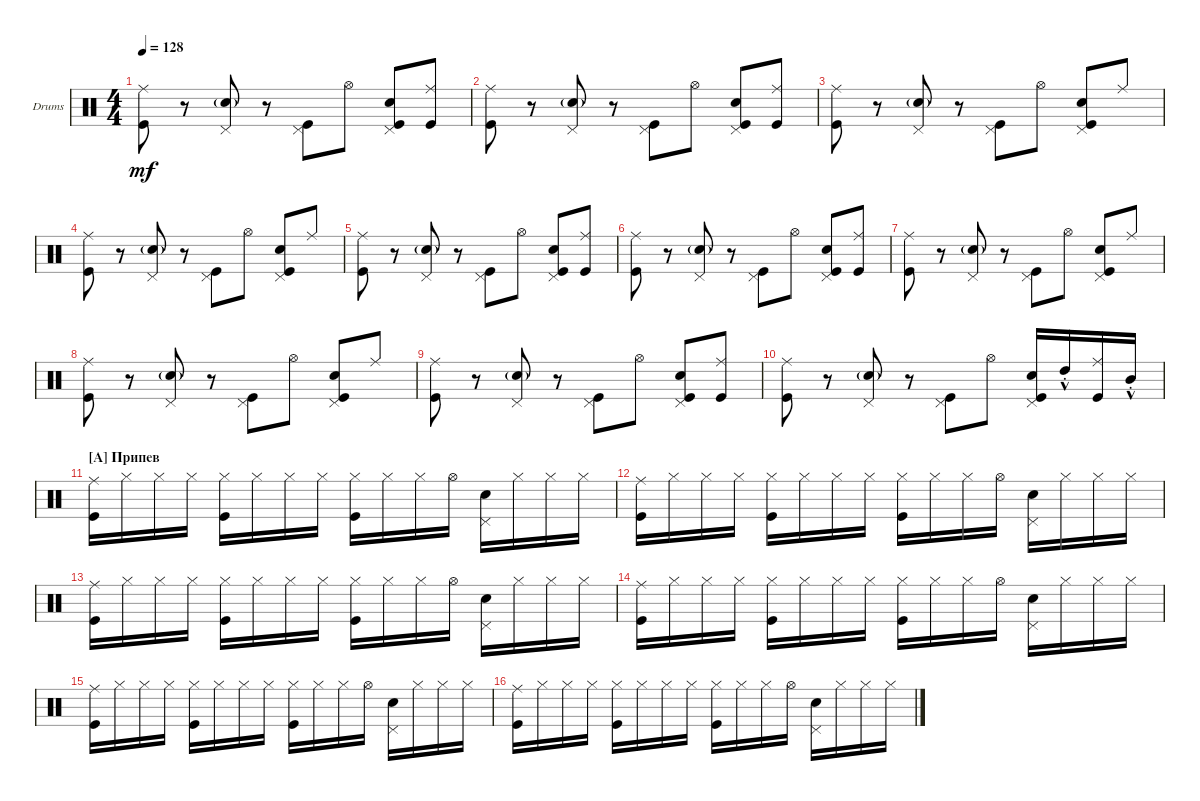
\defaultSystemsLayout 4
\bracketExtendMode groupsimilarinstruments
\firstSystemTrackNameOrientation horizontal
\otherSystemsTrackNameOrientation horizontal
\track ("Drumkit" "Drums") {instrument percussion}
\staff {score}
\articulation defaults
\ts (4 4)
\tempo 128
\clef neutral
\ks c
("Kick (hit)" "Ride (middle)").8{dy mf} r.8 ("Snare (hit) 2"{g} "Pedal Hi-Hat (hit)").8 r.8 ("Pedal Hi-Hat (hit)" "Kick (hit)").8 "Hi-Hat (open)".8 ("Kick (hit)" "Snare (hit) 2" "Pedal Hi-Hat (hit)").8 ("Kick (hit)" "Ride (middle)").8 |
("Kick (hit)" "Ride (middle)").8 r.8 ("Snare (hit) 2"{g} "Pedal Hi-Hat (hit)").8 r.8 ("Pedal Hi-Hat (hit)" "Kick (hit)").8 "Hi-Hat (open)".8 ("Kick (hit)" "Snare (hit) 2" "Pedal Hi-Hat (hit)").8 ("Kick (hit)" "Ride (middle)").8 |
("Kick (hit)" "Ride (middle)").8 r.8 ("Snare (hit) 2"{g} "Pedal Hi-Hat (hit)").8 r.8 ("Pedal Hi-Hat (hit)" "Kick (hit)").8 "Hi-Hat (open)".8 ("Kick (hit)" "Snare (hit) 2" "Pedal Hi-Hat (hit)").8 "Ride (middle)".8 |
("Kick (hit)" "Ride (middle)").8 r.8 ("Snare (hit) 2"{g} "Pedal Hi-Hat (hit)").8 r.8 ("Pedal Hi-Hat (hit)" "Kick (hit)").8 "Hi-Hat (open)".8 ("Kick (hit)" "Snare (hit) 2" "Pedal Hi-Hat (hit)").8 "Ride (middle)".8 |
("Kick (hit)" "Ride (middle)").8 r.8 ("Snare (hit) 2"{g} "Pedal Hi-Hat (hit)").8 r.8 ("Pedal Hi-Hat (hit)" "Kick (hit)").8 "Hi-Hat (open)".8 ("Kick (hit)" "Snare (hit) 2" "Pedal Hi-Hat (hit)").8 ("Kick (hit)" "Ride (middle)").8 |
("Kick (hit)" "Ride (middle)").8 r.8 ("Snare (hit) 2"{g} "Pedal Hi-Hat (hit)").8 r.8 ("Pedal Hi-Hat (hit)" "Kick (hit)").8 "Hi-Hat (open)".8 ("Kick (hit)" "Snare (hit) 2" "Pedal Hi-Hat (hit)").8 ("Kick (hit)" "Ride (middle)").8 |
("Kick (hit)" "Ride (middle)").8 r.8 ("Snare (hit) 2"{g} "Pedal Hi-Hat (hit)").8 r.8 ("Pedal Hi-Hat (hit)" "Kick (hit)").8 "Hi-Hat (open)".8 ("Kick (hit)" "Snare (hit) 2" "Pedal Hi-Hat (hit)").8 "Ride (middle)".8 |
("Kick (hit)" "Ride (middle)").8 r.8 ("Snare (hit) 2"{g} "Pedal Hi-Hat (hit)").8 r.8 ("Pedal Hi-Hat (hit)" "Kick (hit)").8 "Hi-Hat (open)".8 ("Kick (hit)" "Snare (hit) 2" "Pedal Hi-Hat (hit)").8 "Ride (middle)".8 |
("Kick (hit)" "Ride (middle)").8 r.8 ("Snare (hit) 2"{g} "Pedal Hi-Hat (hit)").8 r.8 ("Pedal Hi-Hat (hit)" "Kick (hit)").8 "Hi-Hat (open)".8 ("Kick (hit)" "Snare (hit) 2" "Pedal Hi-Hat (hit)").8 ("Kick (hit)" "Ride (middle)").8 |
("Kick (hit)" "Ride (middle)").8 r.8 ("Snare (hit) 2"{g} "Pedal Hi-Hat (hit)").8 r.8 ("Pedal Hi-Hat (hit)" "Kick (hit)").8 "Hi-Hat (open)".8 ("Kick (hit)" "Snare (hit) 2" "Pedal Hi-Hat (hit)").16 "High Tom (hit)"{hac st}.16 ("Kick (hit)" "Ride (middle)").16 "Mid Tom (hit)"{hac st}.16 |
\section ("A" "Припев")
("Kick (hit)" "Ride (middle)").16 "Hi-Hat (closed)".16 "Hi-Hat (closed)".16 "Hi-Hat (closed)".16 ("Kick (hit)" "Hi-Hat (closed)").16 "Hi-Hat (closed)".16 "Hi-Hat (closed)".16 "Hi-Hat (closed)".16 ("Kick (hit)" "Hi-Hat (closed)").16 "Hi-Hat (closed)".16 "Hi-Hat (closed)".16 "Hi-Hat (open)".16 ("Snare (hit) 2" "Pedal Hi-Hat (hit)").16 "Hi-Hat (closed)".16 "Hi-Hat (closed)".16 "Hi-Hat (closed)".16 |
("Kick (hit)" "Ride (middle)").16 "Hi-Hat (closed)".16 "Hi-Hat (closed)".16 "Hi-Hat (closed)".16 ("Kick (hit)" "Hi-Hat (closed)").16 "Hi-Hat (closed)".16 "Hi-Hat (closed)".16 "Hi-Hat (closed)".16 ("Kick (hit)" "Hi-Hat (closed)").16 "Hi-Hat (closed)".16 "Hi-Hat (closed)".16 "Hi-Hat (open)".16 ("Snare (hit) 2" "Pedal Hi-Hat (hit)").16 "Hi-Hat (closed)".16 "Hi-Hat (closed)".16 "Hi-Hat (closed)".16 |
("Kick (hit)" "Ride (middle)").16 "Hi-Hat (closed)".16 "Hi-Hat (closed)".16 "Hi-Hat (closed)".16 ("Kick (hit)" "Hi-Hat (closed)").16 "Hi-Hat (closed)".16 "Hi-Hat (closed)".16 "Hi-Hat (closed)".16 ("Kick (hit)" "Hi-Hat (closed)").16 "Hi-Hat (closed)".16 "Hi-Hat (closed)".16 "Hi-Hat (open)".16 ("Snare (hit) 2" "Pedal Hi-Hat (hit)").16 "Hi-Hat (closed)".16 "Hi-Hat (closed)".16 "Hi-Hat (closed)".16 |
("Kick (hit)" "Ride (middle)").16 "Hi-Hat (closed)".16 "Hi-Hat (closed)".16 "Hi-Hat (closed)".16 ("Kick (hit)" "Hi-Hat (closed)").16 "Hi-Hat (closed)".16 "Hi-Hat (closed)".16 "Hi-Hat (closed)".16 ("Kick (hit)" "Hi-Hat (closed)").16 "Hi-Hat (closed)".16 "Hi-Hat (closed)".16 "Hi-Hat (open)".16 ("Snare (hit) 2" "Pedal Hi-Hat (hit)").16 "Hi-Hat (closed)".16 "Hi-Hat (closed)".16 "Hi-Hat (closed)".16 |
("Kick (hit)" "Ride (middle)").16 "Hi-Hat (closed)".16 "Hi-Hat (closed)".16 "Hi-Hat (closed)".16 ("Kick (hit)" "Hi-Hat (closed)").16 "Hi-Hat (closed)".16 "Hi-Hat (closed)".16 "Hi-Hat (closed)".16 ("Kick (hit)" "Hi-Hat (closed)").16 "Hi-Hat (closed)".16 "Hi-Hat (closed)".16 "Hi-Hat (open)".16 ("Snare (hit) 2" "Pedal Hi-Hat (hit)").16 "Hi-Hat (closed)".16 "Hi-Hat (closed)".16 "Hi-Hat (closed)".16 |
("Kick (hit)" "Ride (middle)").16 "Hi-Hat (closed)".16 "Hi-Hat (closed)".16 "Hi-Hat (closed)".16 ("Kick (hit)" "Hi-Hat (closed)").16 "Hi-Hat (closed)".16 "Hi-Hat (closed)".16 "Hi-Hat (closed)".16 ("Kick (hit)" "Hi-Hat (closed)").16 "Hi-Hat (closed)".16 "Hi-Hat (closed)".16 "Hi-Hat (open)".16 ("Snare (hit) 2" "Pedal Hi-Hat (hit)").16 "Hi-Hat (closed)".16 "Hi-Hat (closed)".16 "Hi-Hat (closed)".16
